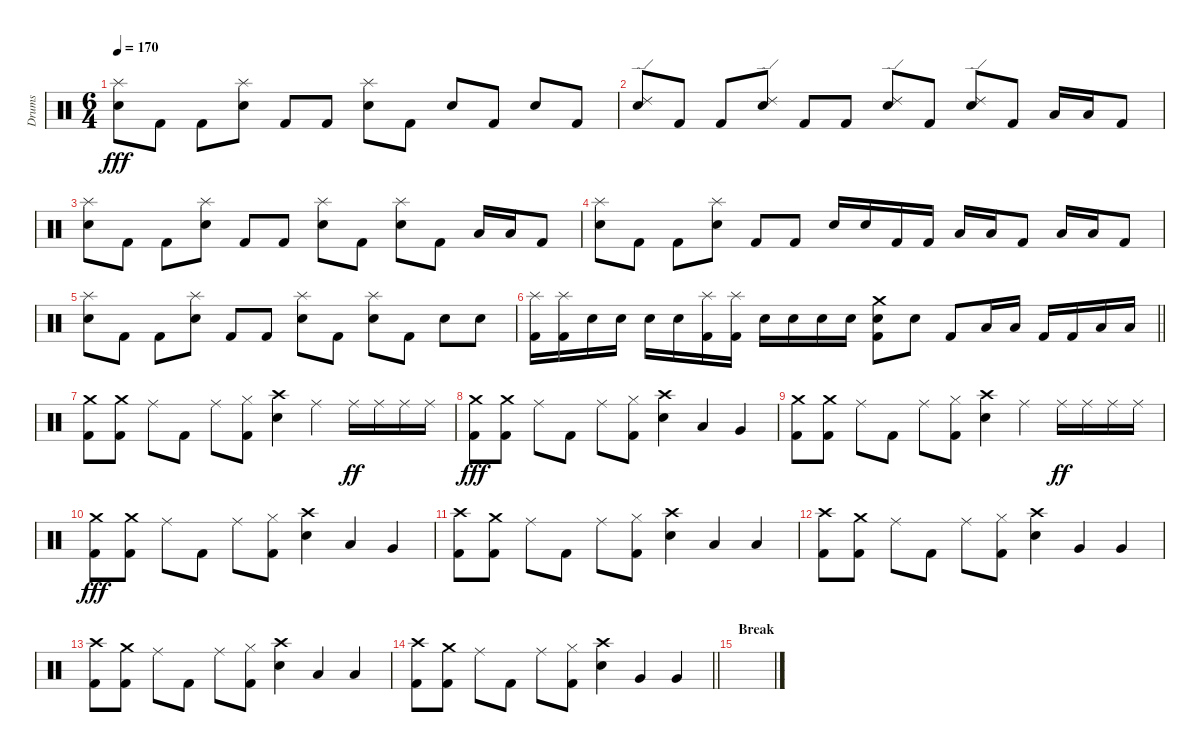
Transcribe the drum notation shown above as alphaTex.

\track ("Drums" "Drums") {instrument percussion}
\staff {score}
\articulation defaults
\ts (6 4)
\tempo 170
\clef neutral
\ks c
("Splash (hit)" "Snare (hit) 2").8{dy fff} "Kick (hit) 2".8 "Kick (hit) 2".8 ("Splash (hit)" "Snare (hit) 2").8 "Kick (hit) 2".8 "Kick (hit) 2".8 ("Splash (hit)" "Snare (hit) 2").8 "Kick (hit) 2".8 "Snare (hit) 2".8 "Kick (hit) 2".8 "Snare (hit) 2".8 "Kick (hit) 2".8 |
("Ride (edge) 2" "Snare (hit) 2").8 "Kick (hit) 2".8 "Kick (hit) 2".8 ("Ride (edge) 2" "Snare (hit) 2").8 "Kick (hit) 2".8 "Kick (hit) 2".8 ("Ride (edge) 2" "Snare (hit) 2").8 "Kick (hit) 2".8 ("Ride (edge) 2" "Snare (hit) 2").8 "Kick (hit) 2".8 "Low Tom (hit)".16 "Low Tom (hit)".16 "Kick (hit) 2".8 |
("Splash (hit)" "Snare (hit) 2").8 "Kick (hit) 2".8 "Kick (hit) 2".8 ("Splash (hit)" "Snare (hit) 2").8 "Kick (hit) 2".8 "Kick (hit) 2".8 ("Splash (hit)" "Snare (hit) 2").8 "Kick (hit) 2".8 ("Splash (hit)" "Snare (hit) 2").8 "Kick (hit) 2".8 "Low Tom (hit)".16 "Low Tom (hit)".16 "Kick (hit) 2".8 |
("Splash (hit)" "Snare (hit) 2").8 "Kick (hit) 2".8 "Kick (hit) 2".8 ("Splash (hit)" "Snare (hit) 2").8 "Kick (hit) 2".8 "Kick (hit) 2".8 "Snare (hit) 2".16 "Snare (hit) 2".16 "Kick (hit) 2".16 "Kick (hit) 2".16 "Low Tom (hit)".16 "Low Tom (hit)".16 "Kick (hit) 2".8 "Low Tom (hit)".16 "Low Tom (hit)".16 "Kick (hit) 2".8 |
("Splash (hit)" "Snare (hit) 2").8 "Kick (hit) 2".8 "Kick (hit) 2".8 ("Splash (hit)" "Snare (hit) 2").8 "Kick (hit) 2".8 "Kick (hit) 2".8 ("Splash (hit)" "Snare (hit) 2").8 "Kick (hit) 2".8 ("Splash (hit)" "Snare (hit) 2").8 "Kick (hit) 2".8 "Snare (hit) 2".8 "Snare (hit) 2".8 |
\barLineRight lightlight
("Splash (hit)" "Kick (hit) 2").16 ("Splash (hit)" "Kick (hit) 2").16 "Snare (hit) 2".16 "Snare (hit) 2".16 "Snare (hit) 2".16 "Snare (hit) 2".16 ("Splash (hit)" "Kick (hit) 2").16 ("Splash (hit)" "Kick (hit) 2").16 "Snare (hit) 2".16 "Snare (hit) 2".16 "Snare (hit) 2".16 "Snare (hit) 2".16 ("Crash medium (hit)" "Snare (hit) 2" "Kick (hit) 2").8 "Snare (hit) 2".8 "Kick (hit) 2".8 "Low Tom (hit)".16 "Low Tom (hit)".16 "Kick (hit) 2".16 "Kick (hit) 2".16 "Low Tom (hit)".16 "Low Tom (hit)".16 |
\section ("" "")
("Crash medium (hit)" "Kick (hit) 2").8 ("Crash medium (hit)" "Kick (hit) 2").8 "Ride (middle)".8 "Kick (hit) 2".8 "Ride (middle)".8 ("Hi-Hat (closed)" "Kick (hit) 2").8 ("Crash high (hit)" "Snare (hit) 2").4 "Ride (middle)".4 "Ride (middle)".16{dy ff} "Ride (middle)".16 "Ride (middle)".16 "Ride (middle)".16 |
("Crash medium (hit)" "Kick (hit) 2").8{dy fff} ("Crash medium (hit)" "Kick (hit) 2").8 "Ride (middle)".8 "Kick (hit) 2".8 "Ride (middle)".8 ("Hi-Hat (closed)" "Kick (hit) 2").8 ("Crash high (hit)" "Snare (hit) 2").4 "Low Tom (hit)".4 "Very Low Tom (hit)".4 |
("Crash medium (hit)" "Kick (hit) 2").8 ("Crash medium (hit)" "Kick (hit) 2").8 "Ride (middle)".8 "Kick (hit) 2".8 "Ride (middle)".8 ("Hi-Hat (closed)" "Kick (hit) 2").8 ("Crash high (hit)" "Snare (hit) 2").4 "Ride (middle)".4 "Ride (middle)".16{dy ff} "Ride (middle)".16 "Ride (middle)".16 "Ride (middle)".16 |
("Crash medium (hit)" "Kick (hit) 2").8{dy fff} ("Crash medium (hit)" "Kick (hit) 2").8 "Ride (middle)".8 "Kick (hit) 2".8 "Ride (middle)".8 ("Hi-Hat (closed)" "Kick (hit) 2").8 ("Crash high (hit)" "Snare (hit) 2").4 "Low Tom (hit)".4 "Very Low Tom (hit)".4 |
("Crash high (hit)" "Kick (hit) 2").8 ("Crash medium (hit)" "Kick (hit) 2").8 "Ride (middle)".8 "Kick (hit) 2".8 "Ride (middle)".8 ("Hi-Hat (closed)" "Kick (hit) 2").8 ("Crash high (hit)" "Snare (hit) 2").4 "Low Tom (hit)".4 "Low Tom (hit)".4 |
("Crash high (hit)" "Kick (hit) 2").8 ("Crash medium (hit)" "Kick (hit) 2").8 "Ride (middle)".8 "Kick (hit) 2".8 "Ride (middle)".8 ("Hi-Hat (closed)" "Kick (hit) 2").8 ("Crash high (hit)" "Snare (hit) 2").4 "Very Low Tom (hit)".4 "Very Low Tom (hit)".4 |
("Crash high (hit)" "Kick (hit) 2").8 ("Crash medium (hit)" "Kick (hit) 2").8 "Ride (middle)".8 "Kick (hit) 2".8 "Ride (middle)".8 ("Hi-Hat (closed)" "Kick (hit) 2").8 ("Crash high (hit)" "Snare (hit) 2").4 "Low Tom (hit)".4 "Low Tom (hit)".4 |
\barLineRight lightlight
("Crash high (hit)" "Kick (hit) 2").8 ("Crash medium (hit)" "Kick (hit) 2").8 "Ride (middle)".8 "Kick (hit) 2".8 "Ride (middle)".8 ("Hi-Hat (closed)" "Kick (hit) 2").8 ("Crash high (hit)" "Snare (hit) 2").4 "Very Low Tom (hit)".4 "Very Low Tom (hit)".4 |
\section ("" "Break")
